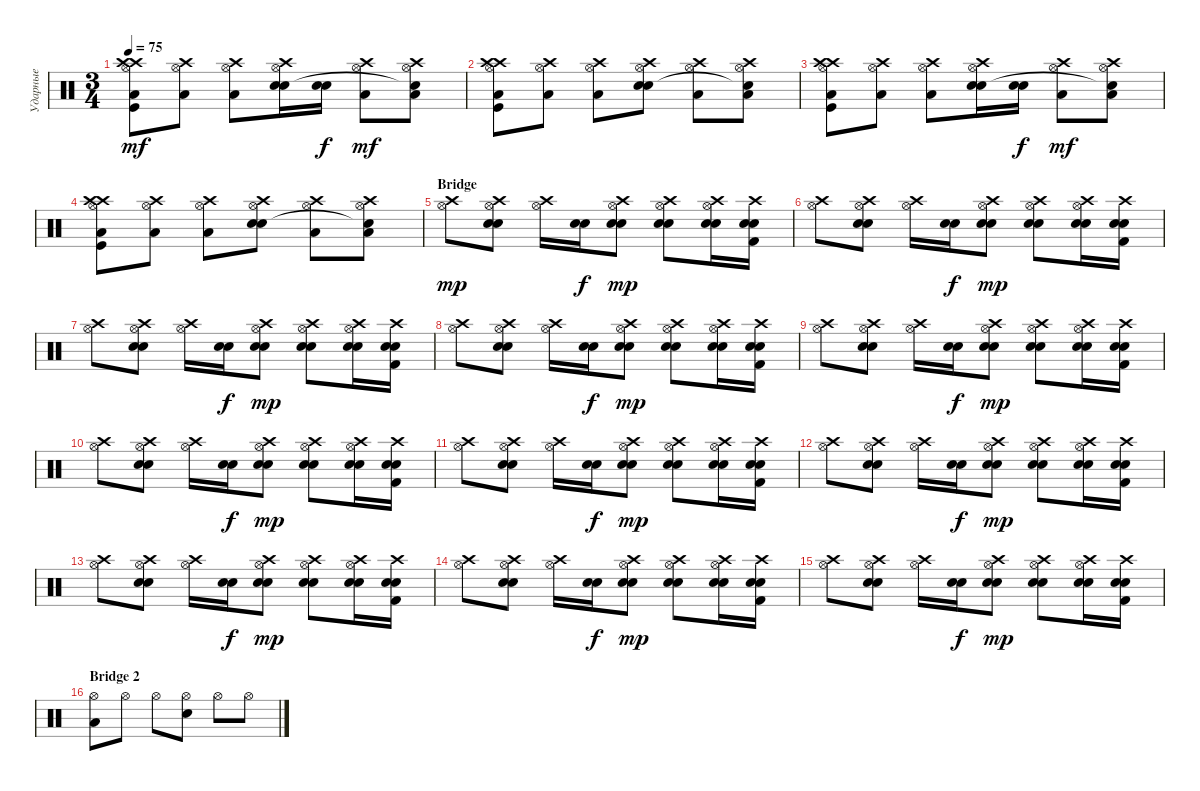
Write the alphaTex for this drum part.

\track ("Ударные" "Ударные") {instrument percussion}
\staff {score}
\articulation defaults
\ts (3 4)
\tempo 75
\clef neutral
\ks c
("Hi-Hat (open)" "Crash high (hit)" "Low Floor Tom (hit)" "Kick (hit)" "Crash high (hit)").8{dy mf} ("Hi-Hat (open)" "Crash high (hit)" "Low Floor Tom (hit)").8 ("Hi-Hat (open)" "Crash high (hit)" "Low Floor Tom (hit)").8 ("Hi-Hat (open)" "Crash high (hit)" "Electric Snare (hit)" "Electric Snare (hit)").16 ("Electric Snare (hit)" "Electric Snare (hit)").16{dy f} ("Hi-Hat (open)" "Crash high (hit)" "Low Floor Tom (hit)").8{dy mf} ("Hi-Hat (open)" "Crash high (hit)" "Low Floor Tom (hit)" "Snare (hit)"{t}).8 |
("Hi-Hat (open)" "Crash high (hit)" "Low Floor Tom (hit)" "Kick (hit)" "Crash high (hit)").8 ("Hi-Hat (open)" "Crash high (hit)" "Low Floor Tom (hit)").8 ("Hi-Hat (open)" "Crash high (hit)" "Low Floor Tom (hit)").8 ("Hi-Hat (open)" "Crash high (hit)" "Electric Snare (hit)" "Electric Snare (hit)").8 ("Hi-Hat (open)" "Crash high (hit)" "Low Floor Tom (hit)").8 ("Hi-Hat (open)" "Crash high (hit)" "Low Floor Tom (hit)" "Snare (hit)"{t}).8 |
("Hi-Hat (open)" "Crash high (hit)" "Low Floor Tom (hit)" "Kick (hit)" "Crash high (hit)").8 ("Hi-Hat (open)" "Crash high (hit)" "Low Floor Tom (hit)").8 ("Hi-Hat (open)" "Crash high (hit)" "Low Floor Tom (hit)").8 ("Hi-Hat (open)" "Crash high (hit)" "Electric Snare (hit)" "Electric Snare (hit)").16 ("Electric Snare (hit)" "Electric Snare (hit)").16{dy f} ("Hi-Hat (open)" "Crash high (hit)" "Low Floor Tom (hit)").8{dy mf} ("Hi-Hat (open)" "Crash high (hit)" "Low Floor Tom (hit)" "Snare (hit)"{t}).8 |
("Hi-Hat (open)" "Crash high (hit)" "Low Floor Tom (hit)" "Kick (hit)" "Crash high (hit)").8 ("Hi-Hat (open)" "Crash high (hit)" "Low Floor Tom (hit)").8 ("Hi-Hat (open)" "Crash high (hit)" "Low Floor Tom (hit)").8 ("Hi-Hat (open)" "Crash high (hit)" "Electric Snare (hit)" "Electric Snare (hit)").8 ("Hi-Hat (open)" "Crash high (hit)" "Low Floor Tom (hit)").8 ("Hi-Hat (open)" "Crash high (hit)" "Low Floor Tom (hit)" "Snare (hit)"{t}).8 |
\section ("" "Bridge")
("Hi-Hat (open)" "Crash high (hit)").8{dy mp} ("Hi-Hat (open)" "Crash high (hit)" "Electric Snare (hit)" "Snare (hit) 2").8 ("Hi-Hat (open)" "Crash high (hit)").16 ("Electric Snare (hit)" "Electric Snare (hit)").16{dy f} ("Hi-Hat (open)" "Crash high (hit)" "Electric Snare (hit)" "Electric Snare (hit)").8{dy mp} ("Hi-Hat (open)" "Crash high (hit)" "Snare (hit) 2" "Electric Snare (hit)").8 ("Hi-Hat (open)" "Crash high (hit)" "Electric Snare (hit)" "Electric Snare (hit)").16 ("Kick (hit) 2" "Crash high (hit)" "Electric Snare (hit)" "Electric Snare (hit)").16 |
("Hi-Hat (open)" "Crash high (hit)").8 ("Hi-Hat (open)" "Crash high (hit)" "Electric Snare (hit)" "Snare (hit) 2").8 ("Hi-Hat (open)" "Crash high (hit)").16 ("Electric Snare (hit)" "Electric Snare (hit)").16{dy f} ("Hi-Hat (open)" "Crash high (hit)" "Electric Snare (hit)" "Electric Snare (hit)").8{dy mp} ("Hi-Hat (open)" "Crash high (hit)" "Snare (hit) 2" "Electric Snare (hit)").8 ("Hi-Hat (open)" "Crash high (hit)" "Electric Snare (hit)" "Electric Snare (hit)").16 ("Kick (hit) 2" "Crash high (hit)" "Electric Snare (hit)" "Electric Snare (hit)").16 |
("Hi-Hat (open)" "Crash high (hit)").8 ("Hi-Hat (open)" "Crash high (hit)" "Electric Snare (hit)" "Snare (hit) 2").8 ("Hi-Hat (open)" "Crash high (hit)").16 ("Electric Snare (hit)" "Electric Snare (hit)").16{dy f} ("Hi-Hat (open)" "Crash high (hit)" "Electric Snare (hit)" "Electric Snare (hit)").8{dy mp} ("Hi-Hat (open)" "Crash high (hit)" "Snare (hit) 2" "Electric Snare (hit)").8 ("Hi-Hat (open)" "Crash high (hit)" "Electric Snare (hit)" "Electric Snare (hit)").16 ("Kick (hit) 2" "Crash high (hit)" "Electric Snare (hit)" "Electric Snare (hit)").16 |
("Hi-Hat (open)" "Crash high (hit)").8 ("Hi-Hat (open)" "Crash high (hit)" "Electric Snare (hit)" "Snare (hit) 2").8 ("Hi-Hat (open)" "Crash high (hit)").16 ("Electric Snare (hit)" "Electric Snare (hit)").16{dy f} ("Hi-Hat (open)" "Crash high (hit)" "Electric Snare (hit)" "Electric Snare (hit)").8{dy mp} ("Hi-Hat (open)" "Crash high (hit)" "Snare (hit) 2" "Electric Snare (hit)").8 ("Hi-Hat (open)" "Crash high (hit)" "Electric Snare (hit)" "Electric Snare (hit)").16 ("Kick (hit) 2" "Crash high (hit)" "Electric Snare (hit)" "Electric Snare (hit)").16 |
("Hi-Hat (open)" "Crash high (hit)").8 ("Hi-Hat (open)" "Crash high (hit)" "Electric Snare (hit)" "Snare (hit) 2").8 ("Hi-Hat (open)" "Crash high (hit)").16 ("Electric Snare (hit)" "Electric Snare (hit)").16{dy f} ("Hi-Hat (open)" "Crash high (hit)" "Electric Snare (hit)" "Electric Snare (hit)").8{dy mp} ("Hi-Hat (open)" "Crash high (hit)" "Snare (hit) 2" "Electric Snare (hit)").8 ("Hi-Hat (open)" "Crash high (hit)" "Electric Snare (hit)" "Electric Snare (hit)").16 ("Kick (hit) 2" "Crash high (hit)" "Electric Snare (hit)" "Electric Snare (hit)").16 |
("Hi-Hat (open)" "Crash high (hit)").8 ("Hi-Hat (open)" "Crash high (hit)" "Electric Snare (hit)" "Snare (hit) 2").8 ("Hi-Hat (open)" "Crash high (hit)").16 ("Electric Snare (hit)" "Electric Snare (hit)").16{dy f} ("Hi-Hat (open)" "Crash high (hit)" "Electric Snare (hit)" "Electric Snare (hit)").8{dy mp} ("Hi-Hat (open)" "Crash high (hit)" "Snare (hit) 2" "Electric Snare (hit)").8 ("Hi-Hat (open)" "Crash high (hit)" "Electric Snare (hit)" "Electric Snare (hit)").16 ("Kick (hit) 2" "Crash high (hit)" "Electric Snare (hit)" "Electric Snare (hit)").16 |
("Hi-Hat (open)" "Crash high (hit)").8 ("Hi-Hat (open)" "Crash high (hit)" "Electric Snare (hit)" "Snare (hit) 2").8 ("Hi-Hat (open)" "Crash high (hit)").16 ("Electric Snare (hit)" "Electric Snare (hit)").16{dy f} ("Hi-Hat (open)" "Crash high (hit)" "Electric Snare (hit)" "Electric Snare (hit)").8{dy mp} ("Hi-Hat (open)" "Crash high (hit)" "Snare (hit) 2" "Electric Snare (hit)").8 ("Hi-Hat (open)" "Crash high (hit)" "Electric Snare (hit)" "Electric Snare (hit)").16 ("Kick (hit) 2" "Crash high (hit)" "Electric Snare (hit)" "Electric Snare (hit)").16 |
("Hi-Hat (open)" "Crash high (hit)").8 ("Hi-Hat (open)" "Crash high (hit)" "Electric Snare (hit)" "Snare (hit) 2").8 ("Hi-Hat (open)" "Crash high (hit)").16 ("Electric Snare (hit)" "Electric Snare (hit)").16{dy f} ("Hi-Hat (open)" "Crash high (hit)" "Electric Snare (hit)" "Electric Snare (hit)").8{dy mp} ("Hi-Hat (open)" "Crash high (hit)" "Snare (hit) 2" "Electric Snare (hit)").8 ("Hi-Hat (open)" "Crash high (hit)" "Electric Snare (hit)" "Electric Snare (hit)").16 ("Kick (hit) 2" "Crash high (hit)" "Electric Snare (hit)" "Electric Snare (hit)").16 |
("Hi-Hat (open)" "Crash high (hit)").8 ("Hi-Hat (open)" "Crash high (hit)" "Electric Snare (hit)" "Snare (hit) 2").8 ("Hi-Hat (open)" "Crash high (hit)").16 ("Electric Snare (hit)" "Electric Snare (hit)").16{dy f} ("Hi-Hat (open)" "Crash high (hit)" "Electric Snare (hit)" "Electric Snare (hit)").8{dy mp} ("Hi-Hat (open)" "Crash high (hit)" "Snare (hit) 2" "Electric Snare (hit)").8 ("Hi-Hat (open)" "Crash high (hit)" "Electric Snare (hit)" "Electric Snare (hit)").16 ("Kick (hit) 2" "Crash high (hit)" "Electric Snare (hit)" "Electric Snare (hit)").16 |
("Hi-Hat (open)" "Crash high (hit)").8 ("Hi-Hat (open)" "Crash high (hit)" "Electric Snare (hit)" "Snare (hit) 2").8 ("Hi-Hat (open)" "Crash high (hit)").16 ("Electric Snare (hit)" "Electric Snare (hit)").16{dy f} ("Hi-Hat (open)" "Crash high (hit)" "Electric Snare (hit)" "Electric Snare (hit)").8{dy mp} ("Hi-Hat (open)" "Crash high (hit)" "Snare (hit) 2" "Electric Snare (hit)").8 ("Hi-Hat (open)" "Crash high (hit)" "Electric Snare (hit)" "Electric Snare (hit)").16 ("Kick (hit) 2" "Crash high (hit)" "Electric Snare (hit)" "Electric Snare (hit)").16 |
("Hi-Hat (open)" "Crash high (hit)").8 ("Hi-Hat (open)" "Crash high (hit)" "Electric Snare (hit)" "Snare (hit) 2").8 ("Hi-Hat (open)" "Crash high (hit)").16 ("Electric Snare (hit)" "Electric Snare (hit)").16{dy f} ("Hi-Hat (open)" "Crash high (hit)" "Electric Snare (hit)" "Electric Snare (hit)").8{dy mp} ("Hi-Hat (open)" "Crash high (hit)" "Snare (hit) 2" "Electric Snare (hit)").8 ("Hi-Hat (open)" "Crash high (hit)" "Electric Snare (hit)" "Electric Snare (hit)").16 ("Kick (hit) 2" "Crash high (hit)" "Electric Snare (hit)" "Electric Snare (hit)").16 |
\section ("" "Bridge 2")
("Hi-Hat (open)" "Low Floor Tom (hit)").8 "Hi-Hat (open)".8 "Hi-Hat (open)".8 ("Hi-Hat (open)" "Snare (hit) 2").8 "Hi-Hat (open)".8 "Hi-Hat (open)".8
